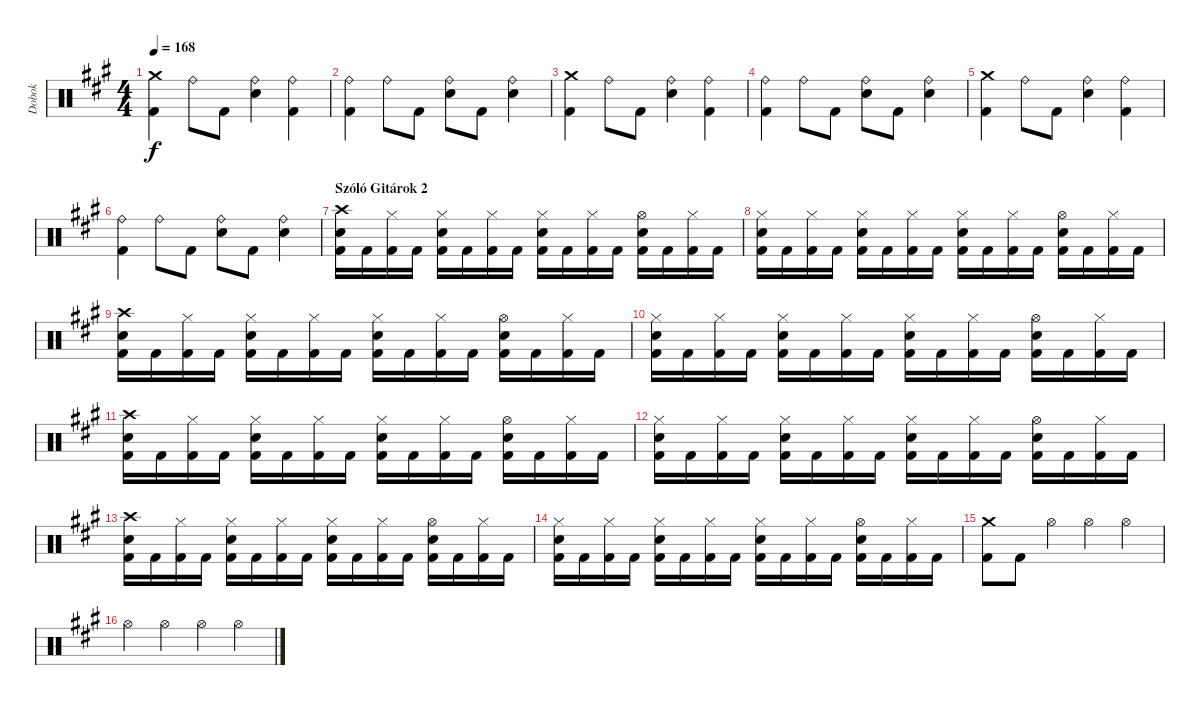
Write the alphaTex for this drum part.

\track ("Dobok" "Dobok") {instrument percussion}
\staff {score}
\articulation defaults
\ts (4 4)
\tempo 168
\clef neutral
\ks f#minor
("Crash medium (hit)" "Kick (hit) 2").4{dy f} "Ride (bell)".8 "Kick (hit) 2".8 ("Ride (bell)" "Snare (hit) 2").4 ("Ride (bell)" "Kick (hit) 2").4 |
("Ride (bell)" "Kick (hit) 2").4 "Ride (bell)".8 "Kick (hit) 2".8 ("Ride (bell)" "Snare (hit) 2").8 "Kick (hit) 2".8 ("Ride (bell)" "Snare (hit) 2").4 |
("Crash medium (hit)" "Kick (hit) 2").4 "Ride (bell)".8 "Kick (hit) 2".8 ("Ride (bell)" "Snare (hit) 2").4 ("Ride (bell)" "Kick (hit) 2").4 |
("Ride (bell)" "Kick (hit) 2").4 "Ride (bell)".8 "Kick (hit) 2".8 ("Ride (bell)" "Snare (hit) 2").8 "Kick (hit) 2".8 ("Ride (bell)" "Snare (hit) 2").4 |
("Crash medium (hit)" "Kick (hit) 2").4 "Ride (bell)".8 "Kick (hit) 2".8 ("Ride (bell)" "Snare (hit) 2").4 ("Ride (bell)" "Kick (hit) 2").4 |
("Ride (bell)" "Kick (hit) 2").4 "Ride (bell)".8 "Kick (hit) 2".8 ("Ride (bell)" "Snare (hit) 2").8 "Kick (hit) 2".8 ("Ride (bell)" "Snare (hit) 2").4 |
\section ("" "Szóló Gitárok 2")
("Crash high (hit)" "Snare (hit) 2" "Kick (hit) 2").16 "Kick (hit) 2".16 ("Hi-Hat (closed)" "Kick (hit) 2").16 "Kick (hit) 2".16 ("Hi-Hat (closed)" "Snare (hit) 2" "Kick (hit) 2").16 "Kick (hit) 2".16 ("Hi-Hat (closed)" "Kick (hit) 2").16 "Kick (hit) 2".16 ("Hi-Hat (closed)" "Snare (hit) 2" "Kick (hit) 2").16 "Kick (hit) 2".16 ("Hi-Hat (closed)" "Kick (hit) 2").16 "Kick (hit) 2".16 ("Hi-Hat (open)" "Snare (hit) 2" "Kick (hit) 2").16 "Kick (hit) 2".16 ("Hi-Hat (closed)" "Kick (hit) 2").16 "Kick (hit) 2".16 |
("Hi-Hat (closed)" "Snare (hit) 2" "Kick (hit) 2").16 "Kick (hit) 2".16 ("Hi-Hat (closed)" "Kick (hit) 2").16 "Kick (hit) 2".16 ("Hi-Hat (closed)" "Snare (hit) 2" "Kick (hit) 2").16 "Kick (hit) 2".16 ("Hi-Hat (closed)" "Kick (hit) 2").16 "Kick (hit) 2".16 ("Hi-Hat (closed)" "Snare (hit) 2" "Kick (hit) 2").16 "Kick (hit) 2".16 ("Hi-Hat (closed)" "Kick (hit) 2").16 "Kick (hit) 2".16 ("Hi-Hat (open)" "Snare (hit) 2" "Kick (hit) 2").16 "Kick (hit) 2".16 ("Hi-Hat (closed)" "Kick (hit) 2").16 "Kick (hit) 2".16 |
("Crash high (hit)" "Snare (hit) 2" "Kick (hit) 2").16 "Kick (hit) 2".16 ("Hi-Hat (closed)" "Kick (hit) 2").16 "Kick (hit) 2".16 ("Hi-Hat (closed)" "Snare (hit) 2" "Kick (hit) 2").16 "Kick (hit) 2".16 ("Hi-Hat (closed)" "Kick (hit) 2").16 "Kick (hit) 2".16 ("Hi-Hat (closed)" "Snare (hit) 2" "Kick (hit) 2").16 "Kick (hit) 2".16 ("Hi-Hat (closed)" "Kick (hit) 2").16 "Kick (hit) 2".16 ("Hi-Hat (open)" "Snare (hit) 2" "Kick (hit) 2").16 "Kick (hit) 2".16 ("Hi-Hat (closed)" "Kick (hit) 2").16 "Kick (hit) 2".16 |
("Hi-Hat (closed)" "Snare (hit) 2" "Kick (hit) 2").16 "Kick (hit) 2".16 ("Hi-Hat (closed)" "Kick (hit) 2").16 "Kick (hit) 2".16 ("Hi-Hat (closed)" "Snare (hit) 2" "Kick (hit) 2").16 "Kick (hit) 2".16 ("Hi-Hat (closed)" "Kick (hit) 2").16 "Kick (hit) 2".16 ("Hi-Hat (closed)" "Snare (hit) 2" "Kick (hit) 2").16 "Kick (hit) 2".16 ("Hi-Hat (closed)" "Kick (hit) 2").16 "Kick (hit) 2".16 ("Hi-Hat (open)" "Snare (hit) 2" "Kick (hit) 2").16 "Kick (hit) 2".16 ("Hi-Hat (closed)" "Kick (hit) 2").16 "Kick (hit) 2".16 |
("Crash high (hit)" "Snare (hit) 2" "Kick (hit) 2").16 "Kick (hit) 2".16 ("Hi-Hat (closed)" "Kick (hit) 2").16 "Kick (hit) 2".16 ("Hi-Hat (closed)" "Snare (hit) 2" "Kick (hit) 2").16 "Kick (hit) 2".16 ("Hi-Hat (closed)" "Kick (hit) 2").16 "Kick (hit) 2".16 ("Hi-Hat (closed)" "Snare (hit) 2" "Kick (hit) 2").16 "Kick (hit) 2".16 ("Hi-Hat (closed)" "Kick (hit) 2").16 "Kick (hit) 2".16 ("Hi-Hat (open)" "Snare (hit) 2" "Kick (hit) 2").16 "Kick (hit) 2".16 ("Hi-Hat (closed)" "Kick (hit) 2").16 "Kick (hit) 2".16 |
("Hi-Hat (closed)" "Snare (hit) 2" "Kick (hit) 2").16 "Kick (hit) 2".16 ("Hi-Hat (closed)" "Kick (hit) 2").16 "Kick (hit) 2".16 ("Hi-Hat (closed)" "Snare (hit) 2" "Kick (hit) 2").16 "Kick (hit) 2".16 ("Hi-Hat (closed)" "Kick (hit) 2").16 "Kick (hit) 2".16 ("Hi-Hat (closed)" "Snare (hit) 2" "Kick (hit) 2").16 "Kick (hit) 2".16 ("Hi-Hat (closed)" "Kick (hit) 2").16 "Kick (hit) 2".16 ("Hi-Hat (open)" "Snare (hit) 2" "Kick (hit) 2").16 "Kick (hit) 2".16 ("Hi-Hat (closed)" "Kick (hit) 2").16 "Kick (hit) 2".16 |
("Crash high (hit)" "Snare (hit) 2" "Kick (hit) 2").16 "Kick (hit) 2".16 ("Hi-Hat (closed)" "Kick (hit) 2").16 "Kick (hit) 2".16 ("Hi-Hat (closed)" "Snare (hit) 2" "Kick (hit) 2").16 "Kick (hit) 2".16 ("Hi-Hat (closed)" "Kick (hit) 2").16 "Kick (hit) 2".16 ("Hi-Hat (closed)" "Snare (hit) 2" "Kick (hit) 2").16 "Kick (hit) 2".16 ("Hi-Hat (closed)" "Kick (hit) 2").16 "Kick (hit) 2".16 ("Hi-Hat (open)" "Snare (hit) 2" "Kick (hit) 2").16 "Kick (hit) 2".16 ("Hi-Hat (closed)" "Kick (hit) 2").16 "Kick (hit) 2".16 |
("Hi-Hat (closed)" "Snare (hit) 2" "Kick (hit) 2").16 "Kick (hit) 2".16 ("Hi-Hat (closed)" "Kick (hit) 2").16 "Kick (hit) 2".16 ("Hi-Hat (closed)" "Snare (hit) 2" "Kick (hit) 2").16 "Kick (hit) 2".16 ("Hi-Hat (closed)" "Kick (hit) 2").16 "Kick (hit) 2".16 ("Hi-Hat (closed)" "Snare (hit) 2" "Kick (hit) 2").16 "Kick (hit) 2".16 ("Hi-Hat (closed)" "Kick (hit) 2").16 "Kick (hit) 2".16 ("Hi-Hat (open)" "Snare (hit) 2" "Kick (hit) 2").16 "Kick (hit) 2".16 ("Hi-Hat (closed)" "Kick (hit) 2").16 "Kick (hit) 2".16 |
("Crash medium (hit)" "Kick (hit) 2").8 "Kick (hit) 2".8 "Hi-Hat (open)".4 "Hi-Hat (open)".4 "Hi-Hat (open)".4 |
"Hi-Hat (open)".4 "Hi-Hat (open)".4 "Hi-Hat (open)".4 "Hi-Hat (open)".4
